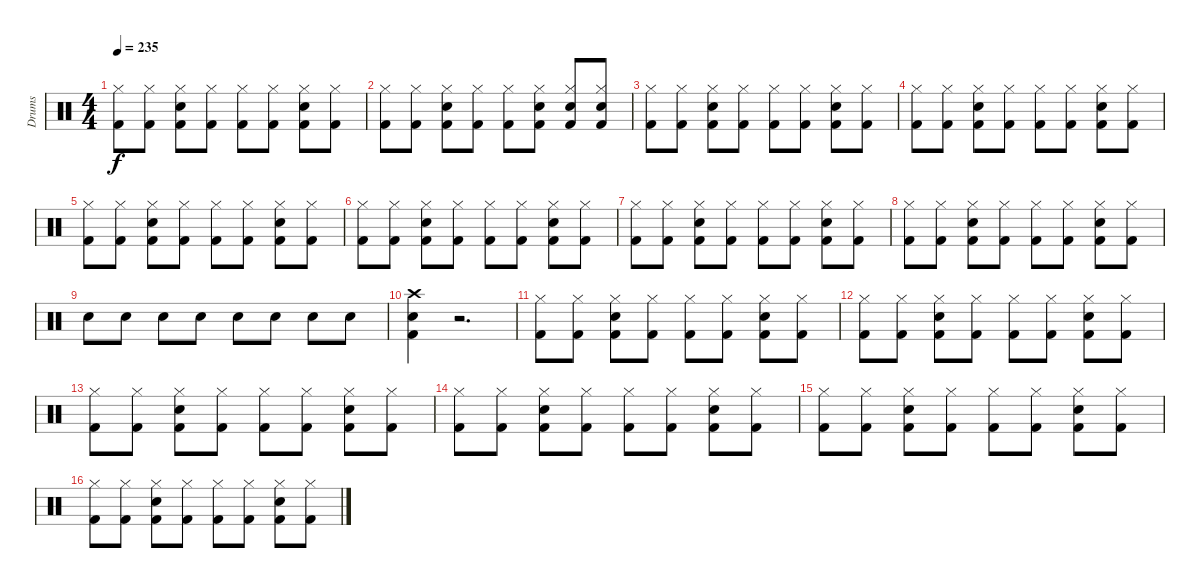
\track ("Drums" "Drums") {instrument percussion}
\staff {score}
\articulation defaults
\ts (4 4)
\tempo 235
\clef neutral
\ks c
("Kick (hit) 2" "Hi-Hat (closed)").8{dy f} ("Kick (hit) 2" "Hi-Hat (closed)").8 ("Kick (hit) 2" "Snare (hit) 2" "Hi-Hat (closed)").8 ("Kick (hit) 2" "Hi-Hat (closed)").8 ("Kick (hit) 2" "Hi-Hat (closed)").8 ("Kick (hit) 2" "Hi-Hat (closed)").8 ("Kick (hit) 2" "Hi-Hat (closed)" "Snare (hit) 2").8 ("Kick (hit) 2" "Hi-Hat (closed)").8 |
("Kick (hit) 2" "Hi-Hat (closed)").8 ("Kick (hit) 2" "Hi-Hat (closed)").8 ("Kick (hit) 2" "Snare (hit) 2" "Hi-Hat (closed)").8 ("Kick (hit) 2" "Hi-Hat (closed)").8 ("Kick (hit) 2" "Hi-Hat (closed)").8 ("Kick (hit) 2" "Hi-Hat (closed)" "Snare (hit) 2").8 ("Kick (hit) 2" "Hi-Hat (closed)" "Snare (hit) 2").8 ("Kick (hit) 2" "Hi-Hat (closed)" "Snare (hit) 2").8 |
("Kick (hit) 2" "Hi-Hat (closed)").8 ("Kick (hit) 2" "Hi-Hat (closed)").8 ("Kick (hit) 2" "Snare (hit) 2" "Hi-Hat (closed)").8 ("Kick (hit) 2" "Hi-Hat (closed)").8 ("Kick (hit) 2" "Hi-Hat (closed)").8 ("Kick (hit) 2" "Hi-Hat (closed)").8 ("Kick (hit) 2" "Hi-Hat (closed)" "Snare (hit) 2").8 ("Kick (hit) 2" "Hi-Hat (closed)").8 |
("Kick (hit) 2" "Hi-Hat (closed)").8 ("Kick (hit) 2" "Hi-Hat (closed)").8 ("Kick (hit) 2" "Snare (hit) 2" "Hi-Hat (closed)").8 ("Kick (hit) 2" "Hi-Hat (closed)").8 ("Kick (hit) 2" "Hi-Hat (closed)").8 ("Kick (hit) 2" "Hi-Hat (closed)").8 ("Kick (hit) 2" "Hi-Hat (closed)" "Snare (hit) 2").8 ("Kick (hit) 2" "Hi-Hat (closed)").8 |
("Kick (hit) 2" "Hi-Hat (closed)").8 ("Kick (hit) 2" "Hi-Hat (closed)").8 ("Kick (hit) 2" "Snare (hit) 2" "Hi-Hat (closed)").8 ("Kick (hit) 2" "Hi-Hat (closed)").8 ("Kick (hit) 2" "Hi-Hat (closed)").8 ("Kick (hit) 2" "Hi-Hat (closed)").8 ("Kick (hit) 2" "Hi-Hat (closed)" "Snare (hit) 2").8 ("Kick (hit) 2" "Hi-Hat (closed)").8 |
("Kick (hit) 2" "Hi-Hat (closed)").8 ("Kick (hit) 2" "Hi-Hat (closed)").8 ("Kick (hit) 2" "Snare (hit) 2" "Hi-Hat (closed)").8 ("Kick (hit) 2" "Hi-Hat (closed)").8 ("Kick (hit) 2" "Hi-Hat (closed)").8 ("Kick (hit) 2" "Hi-Hat (closed)").8 ("Kick (hit) 2" "Hi-Hat (closed)" "Snare (hit) 2").8 ("Kick (hit) 2" "Hi-Hat (closed)").8 |
("Kick (hit) 2" "Hi-Hat (closed)").8 ("Kick (hit) 2" "Hi-Hat (closed)").8 ("Kick (hit) 2" "Snare (hit) 2" "Hi-Hat (closed)").8 ("Kick (hit) 2" "Hi-Hat (closed)").8 ("Kick (hit) 2" "Hi-Hat (closed)").8 ("Kick (hit) 2" "Hi-Hat (closed)").8 ("Kick (hit) 2" "Hi-Hat (closed)" "Snare (hit) 2").8 ("Kick (hit) 2" "Hi-Hat (closed)").8 |
("Kick (hit) 2" "Hi-Hat (closed)").8 ("Kick (hit) 2" "Hi-Hat (closed)").8 ("Kick (hit) 2" "Snare (hit) 2" "Hi-Hat (closed)").8 ("Kick (hit) 2" "Hi-Hat (closed)").8 ("Kick (hit) 2" "Hi-Hat (closed)").8 ("Kick (hit) 2" "Hi-Hat (closed)").8 ("Kick (hit) 2" "Hi-Hat (closed)" "Snare (hit) 2").8 ("Kick (hit) 2" "Hi-Hat (closed)").8 |
"Snare (hit) 2".8 "Snare (hit) 2".8 "Snare (hit) 2".8 "Snare (hit) 2".8 "Snare (hit) 2".8 "Snare (hit) 2".8 "Snare (hit) 2".8 "Snare (hit) 2".8 |
("Snare (hit) 2" "Kick (hit) 2" "Crash high (hit)").4 r.2{d} |
("Kick (hit) 2" "Hi-Hat (closed)").8 ("Kick (hit) 2" "Hi-Hat (closed)").8 ("Kick (hit) 2" "Snare (hit) 2" "Hi-Hat (closed)").8 ("Kick (hit) 2" "Hi-Hat (closed)").8 ("Kick (hit) 2" "Hi-Hat (closed)").8 ("Kick (hit) 2" "Hi-Hat (closed)").8 ("Kick (hit) 2" "Hi-Hat (closed)" "Snare (hit) 2").8 ("Kick (hit) 2" "Hi-Hat (closed)").8 |
("Kick (hit) 2" "Hi-Hat (closed)").8 ("Kick (hit) 2" "Hi-Hat (closed)").8 ("Kick (hit) 2" "Snare (hit) 2" "Hi-Hat (closed)").8 ("Kick (hit) 2" "Hi-Hat (closed)").8 ("Kick (hit) 2" "Hi-Hat (closed)").8 ("Kick (hit) 2" "Hi-Hat (closed)").8 ("Kick (hit) 2" "Hi-Hat (closed)" "Snare (hit) 2").8 ("Kick (hit) 2" "Hi-Hat (closed)").8 |
("Kick (hit) 2" "Hi-Hat (closed)").8 ("Kick (hit) 2" "Hi-Hat (closed)").8 ("Kick (hit) 2" "Snare (hit) 2" "Hi-Hat (closed)").8 ("Kick (hit) 2" "Hi-Hat (closed)").8 ("Kick (hit) 2" "Hi-Hat (closed)").8 ("Kick (hit) 2" "Hi-Hat (closed)").8 ("Kick (hit) 2" "Hi-Hat (closed)" "Snare (hit) 2").8 ("Kick (hit) 2" "Hi-Hat (closed)").8 |
("Kick (hit) 2" "Hi-Hat (closed)").8 ("Kick (hit) 2" "Hi-Hat (closed)").8 ("Kick (hit) 2" "Snare (hit) 2" "Hi-Hat (closed)").8 ("Kick (hit) 2" "Hi-Hat (closed)").8 ("Kick (hit) 2" "Hi-Hat (closed)").8 ("Kick (hit) 2" "Hi-Hat (closed)").8 ("Kick (hit) 2" "Hi-Hat (closed)" "Snare (hit) 2").8 ("Kick (hit) 2" "Hi-Hat (closed)").8 |
("Kick (hit) 2" "Hi-Hat (closed)").8 ("Kick (hit) 2" "Hi-Hat (closed)").8 ("Kick (hit) 2" "Snare (hit) 2" "Hi-Hat (closed)").8 ("Kick (hit) 2" "Hi-Hat (closed)").8 ("Kick (hit) 2" "Hi-Hat (closed)").8 ("Kick (hit) 2" "Hi-Hat (closed)").8 ("Kick (hit) 2" "Hi-Hat (closed)" "Snare (hit) 2").8 ("Kick (hit) 2" "Hi-Hat (closed)").8 |
("Kick (hit) 2" "Hi-Hat (closed)").8 ("Kick (hit) 2" "Hi-Hat (closed)").8 ("Kick (hit) 2" "Snare (hit) 2" "Hi-Hat (closed)").8 ("Kick (hit) 2" "Hi-Hat (closed)").8 ("Kick (hit) 2" "Hi-Hat (closed)").8 ("Kick (hit) 2" "Hi-Hat (closed)").8 ("Kick (hit) 2" "Hi-Hat (closed)" "Snare (hit) 2").8 ("Kick (hit) 2" "Hi-Hat (closed)").8
